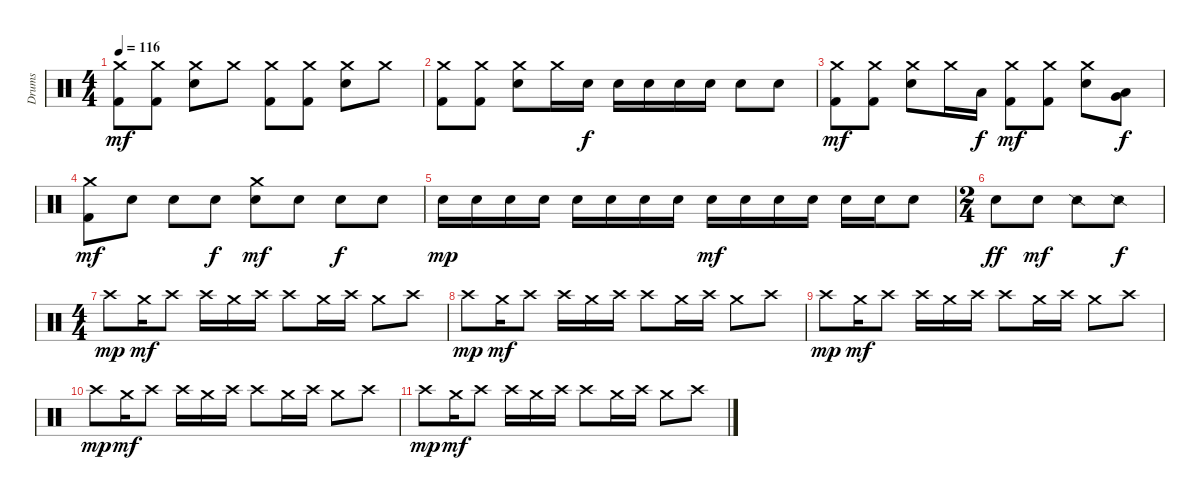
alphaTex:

\track ("Drums" "Drums") {instrument percussion}
\staff {score}
\articulation defaults
\ts (4 4)
\tempo 116
\clef neutral
\ks c
("Kick (hit) 2" "Crash medium (hit)").8{dy mf} ("Crash medium (hit)" "Kick (hit) 2").8 ("Snare (hit) 2" "Crash medium (hit)").8 "Crash medium (hit)".8 ("Crash medium (hit)" "Kick (hit) 2").8 ("Kick (hit) 2" "Crash medium (hit)").8 ("Crash medium (hit)" "Snare (hit) 2").8 "Crash medium (hit)".8 |
("Crash medium (hit)" "Kick (hit) 2").8 ("Crash medium (hit)" "Kick (hit) 2").8 ("Snare (hit) 2" "Crash medium (hit)").8 "Crash medium (hit)".16 "Snare (hit) 2".16{dy f} "Snare (hit) 2".16 "Snare (hit) 2".16 "Snare (hit) 2".16 "Snare (hit) 2".16 "Snare (hit) 2".8 "Snare (hit) 2".8 |
("Crash medium (hit)" "Kick (hit) 2").8{dy mf} ("Kick (hit) 2" "Crash medium (hit)").8 ("Crash medium (hit)" "Snare (hit) 2").8 "Crash medium (hit)".16 "Low Tom (hit)".16{dy f} ("Crash medium (hit)" "Kick (hit) 2").8{dy mf} ("Kick (hit) 2" "Crash medium (hit)").8 ("Crash medium (hit)" "Snare (hit) 2").8 ("Low Tom (hit)" "Very Low Tom (hit)").8{dy f} |
("Kick (hit) 2" "Crash medium (hit)").8{dy mf} "Snare (hit) 2".8 "Snare (hit) 2".8 "Snare (hit) 2".8{dy f} ("Crash medium (hit)" "Snare (hit) 2").8{dy mf} "Snare (hit) 2".8 "Snare (hit) 2".8{dy f} "Snare (hit) 2".8 |
"Snare (hit) 2".16{dy mp} "Snare (hit) 2".16 "Snare (hit) 2".16 "Snare (hit) 2".16 "Snare (hit) 2".16 "Snare (hit) 2".16 "Snare (hit) 2".16 "Snare (hit) 2".16 "Snare (hit) 2".16{dy mf} "Snare (hit) 2".16 "Snare (hit) 2".16 "Snare (hit) 2".16 "Snare (hit) 2".16 "Snare (hit) 2".16 "Snare (hit) 2".8 |
\ts (2 4)
"Snare (hit) 2".8{dy ff} "Snare (hit) 2".8{dy mf} "Snare (side stick) 2".8 "Snare (side stick) 2".8{dy f} |
\ts (4 4)
"Crash high (hit)".8{dy mp} "Crash medium (hit)".16{dy mf} "Crash high (hit)".8 "Crash high (hit)".16 "Crash medium (hit)".16 "Crash high (hit)".16 "Crash high (hit)".8 "Crash medium (hit)".16 "Crash high (hit)".16 "Crash medium (hit)".8 "Crash high (hit)".8 |
"Crash high (hit)".8{dy mp} "Crash medium (hit)".16{dy mf} "Crash high (hit)".8 "Crash high (hit)".16 "Crash medium (hit)".16 "Crash high (hit)".16 "Crash high (hit)".8 "Crash medium (hit)".16 "Crash high (hit)".16 "Crash medium (hit)".8 "Crash high (hit)".8 |
"Crash high (hit)".8{dy mp} "Crash medium (hit)".16{dy mf} "Crash high (hit)".8 "Crash high (hit)".16 "Crash medium (hit)".16 "Crash high (hit)".16 "Crash high (hit)".8 "Crash medium (hit)".16 "Crash high (hit)".16 "Crash medium (hit)".8 "Crash high (hit)".8 |
"Crash high (hit)".8{dy mp} "Crash medium (hit)".16{dy mf} "Crash high (hit)".8 "Crash high (hit)".16 "Crash medium (hit)".16 "Crash high (hit)".16 "Crash high (hit)".8 "Crash medium (hit)".16 "Crash high (hit)".16 "Crash medium (hit)".8 "Crash high (hit)".8 |
"Crash high (hit)".8{dy mp} "Crash medium (hit)".16{dy mf} "Crash high (hit)".8 "Crash high (hit)".16 "Crash medium (hit)".16 "Crash high (hit)".16 "Crash high (hit)".8 "Crash medium (hit)".16 "Crash high (hit)".16 "Crash medium (hit)".8 "Crash high (hit)".8
